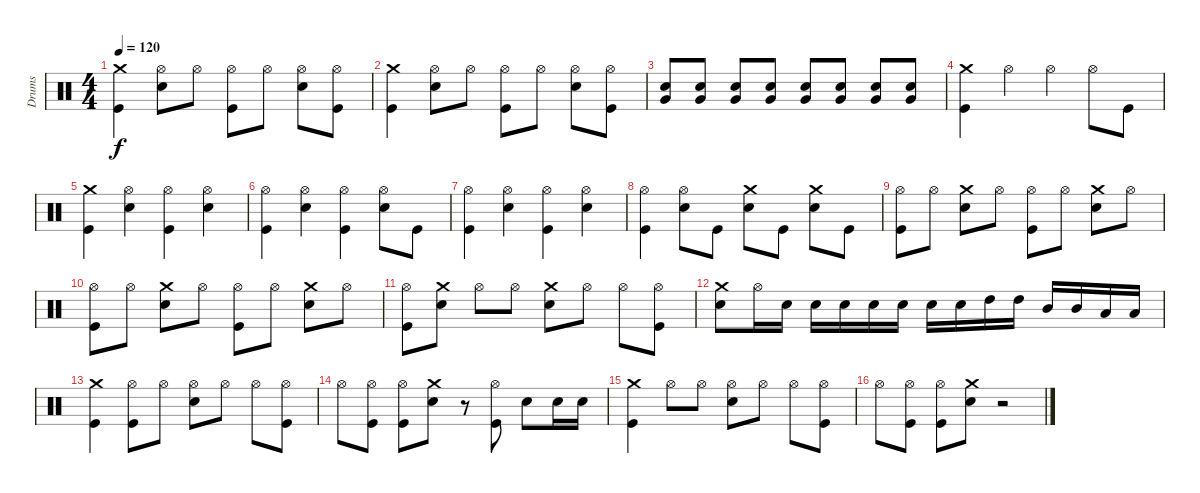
\track ("Drums" "Drums") {instrument percussion}
\staff {score}
\articulation defaults
\ts (4 4)
\tempo 120
\clef neutral
\ks c
("Kick (hit)" "Crash medium (hit)").4{dy f} ("Electric Snare (hit)" "Hi-Hat (open)").8 "Hi-Hat (open)".8 ("Kick (hit)" "Hi-Hat (open)").8 "Hi-Hat (open)".8 ("Electric Snare (hit)" "Hi-Hat (open)").8 ("Kick (hit)" "Hi-Hat (open)").8 |
("Kick (hit)" "Crash medium (hit)").4 ("Electric Snare (hit)" "Hi-Hat (open)").8 "Hi-Hat (open)".8 ("Kick (hit)" "Hi-Hat (open)").8 "Hi-Hat (open)".8 ("Electric Snare (hit)" "Hi-Hat (open)").8 ("Kick (hit)" "Hi-Hat (open)").8 |
("Electric Snare (hit)" "Very Low Tom (hit)").8 ("Electric Snare (hit)" "Very Low Tom (hit)").8 ("Electric Snare (hit)" "Very Low Tom (hit)").8 ("Electric Snare (hit)" "Very Low Tom (hit)").8 ("Electric Snare (hit)" "Very Low Tom (hit)").8 ("Electric Snare (hit)" "Very Low Tom (hit)").8 ("Electric Snare (hit)" "Very Low Tom (hit)").8 ("Electric Snare (hit)" "Very Low Tom (hit)").8 |
("Kick (hit)" "Crash medium (hit)").4 "Hi-Hat (open)".4 "Hi-Hat (open)".4 "Hi-Hat (open)".8 "Kick (hit)".8 |
("Kick (hit)" "Crash medium (hit)").4 ("Electric Snare (hit)" "Hi-Hat (open)").4 ("Kick (hit)" "Hi-Hat (open)").4 ("Electric Snare (hit)" "Hi-Hat (open)").4 |
("Kick (hit)" "Hi-Hat (open)").4 ("Electric Snare (hit)" "Hi-Hat (open)").4 ("Kick (hit)" "Hi-Hat (open)").4 ("Electric Snare (hit)" "Hi-Hat (open)").8 "Kick (hit)".8 |
("Kick (hit)" "Hi-Hat (open)").4 ("Electric Snare (hit)" "Hi-Hat (open)").4 ("Kick (hit)" "Hi-Hat (open)").4 ("Electric Snare (hit)" "Hi-Hat (open)").4 |
("Kick (hit)" "Hi-Hat (open)").4 ("Electric Snare (hit)" "Hi-Hat (open)").8 "Kick (hit)".8 ("Electric Snare (hit)" "Crash medium (hit)").8 "Kick (hit)".8 ("Electric Snare (hit)" "Crash medium (hit)").8 "Kick (hit)".8 |
("Kick (hit)" "Hi-Hat (open)").8 "Hi-Hat (open)".8 ("Electric Snare (hit)" "Crash medium (hit)").8 "Hi-Hat (open)".8 ("Kick (hit)" "Hi-Hat (open)").8 "Hi-Hat (open)".8 ("Electric Snare (hit)" "Crash medium (hit)").8 "Hi-Hat (open)".8 |
("Kick (hit)" "Hi-Hat (open)").8 "Hi-Hat (open)".8 ("Electric Snare (hit)" "Crash medium (hit)").8 "Hi-Hat (open)".8 ("Kick (hit)" "Hi-Hat (open)").8 "Hi-Hat (open)".8 ("Electric Snare (hit)" "Crash medium (hit)").8 "Hi-Hat (open)".8 |
("Kick (hit)" "Hi-Hat (open)").8 ("Electric Snare (hit)" "Crash medium (hit)").8 "Hi-Hat (open)".8 "Hi-Hat (open)".8 ("Electric Snare (hit)" "Crash medium (hit)").8 "Hi-Hat (open)".8 "Hi-Hat (open)".8 ("Kick (hit)" "Hi-Hat (open)").8 |
("Electric Snare (hit)" "Crash medium (hit)").8 "Hi-Hat (open)".16 "Electric Snare (hit)".16 "Electric Snare (hit)".16 "Electric Snare (hit)".16 "Electric Snare (hit)".16 "Electric Snare (hit)".16 "Electric Snare (hit)".16 "Electric Snare (hit)".16 "High Tom (hit)".16 "High Tom (hit)".16 "Mid Tom (hit)".16 "Mid Tom (hit)".16 "Low Tom (hit)".16 "Low Tom (hit)".16 |
("Kick (hit)" "Crash medium (hit)").4 ("Kick (hit)" "Hi-Hat (open)").8 "Hi-Hat (open)".8 ("Electric Snare (hit)" "Hi-Hat (open)").8 "Hi-Hat (open)".8 "Hi-Hat (open)".8 ("Kick (hit)" "Hi-Hat (open)").8 |
"Hi-Hat (open)".8 ("Kick (hit)" "Hi-Hat (open)").8 ("Kick (hit)" "Hi-Hat (open)").8 ("Electric Snare (hit)" "Crash medium (hit)").8 r.8 ("Kick (hit)" "Hi-Hat (open)").8 "Electric Snare (hit)".8 "Electric Snare (hit)".16 "Electric Snare (hit)".16 |
("Kick (hit)" "Crash medium (hit)").4 "Hi-Hat (open)".8 "Hi-Hat (open)".8 ("Electric Snare (hit)" "Hi-Hat (open)").8 "Hi-Hat (open)".8 "Hi-Hat (open)".8 ("Kick (hit)" "Hi-Hat (open)").8 |
"Hi-Hat (open)".8 ("Kick (hit)" "Hi-Hat (open)").8 ("Kick (hit)" "Hi-Hat (open)").8 ("Electric Snare (hit)" "Crash medium (hit)").8 r.2
